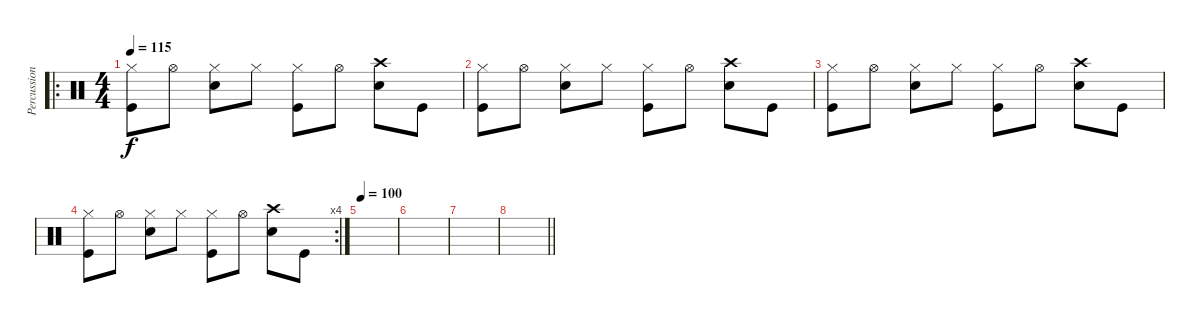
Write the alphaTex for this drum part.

\track ("Percussion" "Percussion") {instrument percussion}
\staff {score}
\articulation defaults
\ro
\ts (4 4)
\tempo 115
\clef neutral
\ks c
("Hi-Hat (closed)" "Kick (hit)").8{dy f} "Hi-Hat (open)".8 ("Hi-Hat (closed)" "Snare (hit) 2").8 "Hi-Hat (closed)".8 ("Hi-Hat (closed)" "Kick (hit)").8 "Hi-Hat (open)".8 ("Crash high (hit)" "Snare (hit) 2").8 "Kick (hit)".8 |
("Hi-Hat (closed)" "Kick (hit)").8 "Hi-Hat (open)".8 ("Hi-Hat (closed)" "Snare (hit) 2").8 "Hi-Hat (closed)".8 ("Hi-Hat (closed)" "Kick (hit)").8 "Hi-Hat (open)".8 ("Crash high (hit)" "Snare (hit) 2").8 "Kick (hit)".8 |
("Hi-Hat (closed)" "Kick (hit)").8 "Hi-Hat (open)".8 ("Hi-Hat (closed)" "Snare (hit) 2").8 "Hi-Hat (closed)".8 ("Hi-Hat (closed)" "Kick (hit)").8 "Hi-Hat (open)".8 ("Crash high (hit)" "Snare (hit) 2").8 "Kick (hit)".8 |
\rc 4
("Hi-Hat (closed)" "Kick (hit)").8 "Hi-Hat (open)".8 ("Hi-Hat (closed)" "Snare (hit) 2").8 "Hi-Hat (closed)".8 ("Hi-Hat (closed)" "Kick (hit)").8 "Hi-Hat (open)".8 ("Crash high (hit)" "Snare (hit) 2").8 "Kick (hit)".8 |
\tempo 100
|
|
|
\barLineRight lightlight
